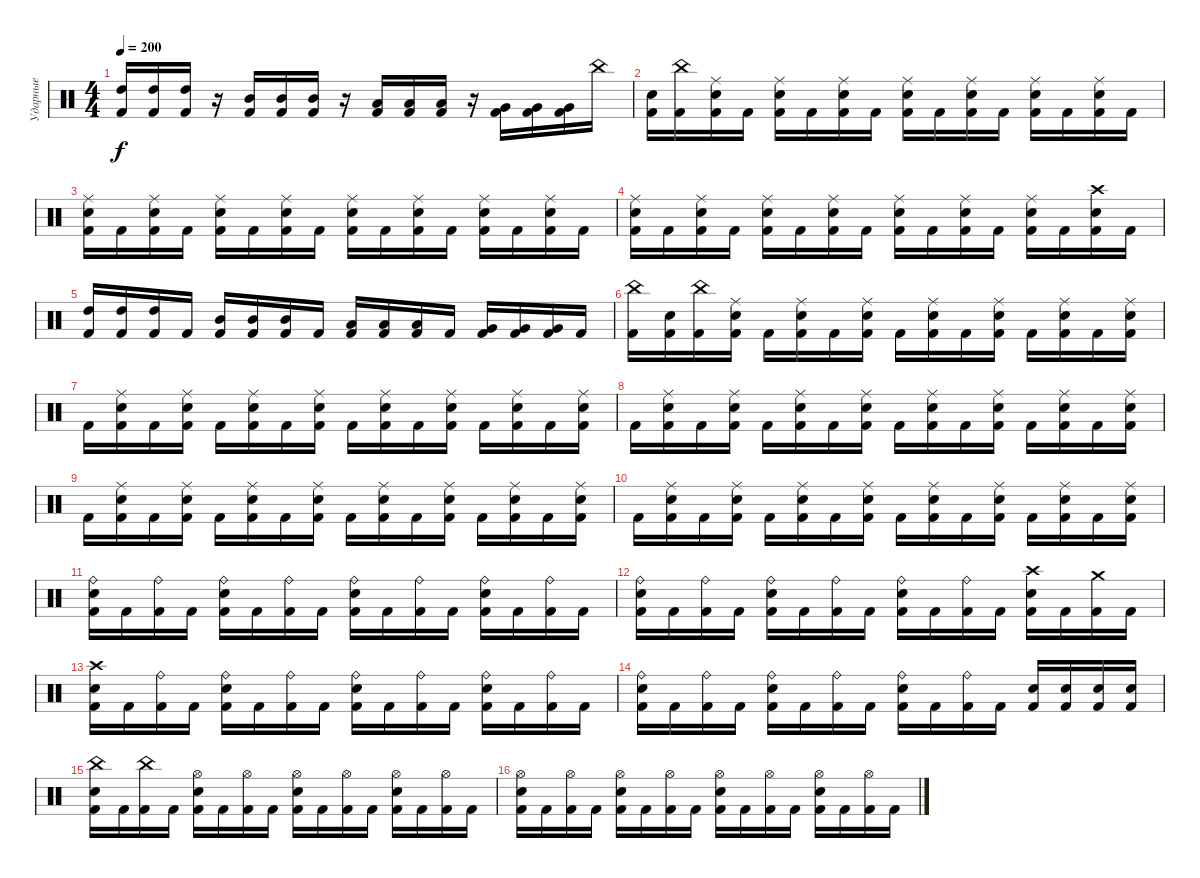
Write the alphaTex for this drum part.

\track ("Ударные" "Ударные") {instrument percussion}
\staff {score}
\articulation defaults
\ts (4 4)
\tempo 200
\clef neutral
\ks c
("High Tom (hit)" "Kick (hit) 2").16{dy f} ("High Tom (hit)" "Kick (hit) 2").16 ("High Tom (hit)" "Kick (hit) 2").16 r.16 ("Mid Tom (hit)" "Kick (hit) 2").16 ("Mid Tom (hit)" "Kick (hit) 2").16 ("Mid Tom (hit)" "Kick (hit) 2").16 r.16 ("Low Tom (hit)" "Kick (hit) 2").16 ("Low Tom (hit)" "Kick (hit) 2").16 ("Low Tom (hit)" "Kick (hit) 2").16 r.16 ("Very Low Tom (hit)" "Kick (hit) 2").16 ("Very Low Tom (hit)" "Kick (hit) 2").16 ("Very Low Tom (hit)" "Kick (hit) 2").16 "China (hit)".16 |
("Snare (hit) 2" "Kick (hit) 2").16 ("China (hit)" "Kick (hit) 2").16 ("Ride (middle)" "Snare (hit) 2" "Kick (hit) 2").16 "Kick (hit) 2".16 ("Ride (middle)" "Snare (hit) 2" "Kick (hit) 2").16 "Kick (hit) 2".16 ("Ride (middle)" "Snare (hit) 2" "Kick (hit) 2").16 "Kick (hit) 2".16 ("Ride (middle)" "Snare (hit) 2" "Kick (hit) 2").16 "Kick (hit) 2".16 ("Ride (middle)" "Snare (hit) 2" "Kick (hit) 2").16 "Kick (hit) 2".16 ("Ride (middle)" "Snare (hit) 2" "Kick (hit) 2").16 "Kick (hit) 2".16 ("Ride (middle)" "Snare (hit) 2" "Kick (hit) 2").16 "Kick (hit) 2".16 |
("Ride (middle)" "Snare (hit) 2" "Kick (hit) 2").16 "Kick (hit) 2".16 ("Ride (middle)" "Snare (hit) 2" "Kick (hit) 2").16 "Kick (hit) 2".16 ("Ride (middle)" "Snare (hit) 2" "Kick (hit) 2").16 "Kick (hit) 2".16 ("Ride (middle)" "Snare (hit) 2" "Kick (hit) 2").16 "Kick (hit) 2".16 ("Ride (middle)" "Snare (hit) 2" "Kick (hit) 2").16 "Kick (hit) 2".16 ("Ride (middle)" "Snare (hit) 2" "Kick (hit) 2").16 "Kick (hit) 2".16 ("Ride (middle)" "Snare (hit) 2" "Kick (hit) 2").16 "Kick (hit) 2".16 ("Ride (middle)" "Snare (hit) 2" "Kick (hit) 2").16 "Kick (hit) 2".16 |
("Ride (middle)" "Snare (hit) 2" "Kick (hit) 2").16 "Kick (hit) 2".16 ("Ride (middle)" "Snare (hit) 2" "Kick (hit) 2").16 "Kick (hit) 2".16 ("Ride (middle)" "Snare (hit) 2" "Kick (hit) 2").16 "Kick (hit) 2".16 ("Ride (middle)" "Snare (hit) 2" "Kick (hit) 2").16 "Kick (hit) 2".16 ("Ride (middle)" "Snare (hit) 2" "Kick (hit) 2").16 "Kick (hit) 2".16 ("Ride (middle)" "Snare (hit) 2" "Kick (hit) 2").16 "Kick (hit) 2".16 ("Ride (middle)" "Snare (hit) 2" "Kick (hit) 2").16 "Kick (hit) 2".16 ("Crash high (hit)" "Snare (hit) 2" "Kick (hit) 2").16 "Kick (hit) 2".16 |
("High Tom (hit)" "Kick (hit) 2").16 ("High Tom (hit)" "Kick (hit) 2").16 ("High Tom (hit)" "Kick (hit) 2").16 "Kick (hit) 2".16 ("Mid Tom (hit)" "Kick (hit) 2").16 ("Mid Tom (hit)" "Kick (hit) 2").16 ("Mid Tom (hit)" "Kick (hit) 2").16 "Kick (hit) 2".16 ("Low Tom (hit)" "Kick (hit) 2").16 ("Low Tom (hit)" "Kick (hit) 2").16 ("Low Tom (hit)" "Kick (hit) 2").16 "Kick (hit) 2".16 ("Very Low Tom (hit)" "Kick (hit) 2").16 ("Very Low Tom (hit)" "Kick (hit) 2").16 ("Very Low Tom (hit)" "Kick (hit) 2").16 "Kick (hit) 2".16 |
("China (hit)" "Kick (hit) 2").16 ("Snare (hit) 2" "Kick (hit) 2").16 ("China (hit)" "Kick (hit) 2").16 ("Ride (middle)" "Snare (hit) 2" "Kick (hit) 2").16 "Kick (hit) 2".16 ("Ride (middle)" "Snare (hit) 2" "Kick (hit) 2").16 "Kick (hit) 2".16 ("Ride (middle)" "Snare (hit) 2" "Kick (hit) 2").16 "Kick (hit) 2".16 ("Ride (middle)" "Snare (hit) 2" "Kick (hit) 2").16 "Kick (hit) 2".16 ("Ride (middle)" "Snare (hit) 2" "Kick (hit) 2").16 "Kick (hit) 2".16 ("Ride (middle)" "Snare (hit) 2" "Kick (hit) 2").16 "Kick (hit) 2".16 ("Ride (middle)" "Snare (hit) 2" "Kick (hit) 2").16 |
"Kick (hit) 2".16 ("Ride (middle)" "Snare (hit) 2" "Kick (hit) 2").16 "Kick (hit) 2".16 ("Ride (middle)" "Snare (hit) 2" "Kick (hit) 2").16 "Kick (hit) 2".16 ("Ride (middle)" "Snare (hit) 2" "Kick (hit) 2").16 "Kick (hit) 2".16 ("Ride (middle)" "Snare (hit) 2" "Kick (hit) 2").16 "Kick (hit) 2".16 ("Ride (middle)" "Snare (hit) 2" "Kick (hit) 2").16 "Kick (hit) 2".16 ("Ride (middle)" "Snare (hit) 2" "Kick (hit) 2").16 "Kick (hit) 2".16 ("Ride (middle)" "Snare (hit) 2" "Kick (hit) 2").16 "Kick (hit) 2".16 ("Ride (middle)" "Snare (hit) 2" "Kick (hit) 2").16 |
"Kick (hit) 2".16 ("Ride (middle)" "Snare (hit) 2" "Kick (hit) 2").16 "Kick (hit) 2".16 ("Ride (middle)" "Snare (hit) 2" "Kick (hit) 2").16 "Kick (hit) 2".16 ("Ride (middle)" "Snare (hit) 2" "Kick (hit) 2").16 "Kick (hit) 2".16 ("Ride (middle)" "Snare (hit) 2" "Kick (hit) 2").16 "Kick (hit) 2".16 ("Ride (middle)" "Snare (hit) 2" "Kick (hit) 2").16 "Kick (hit) 2".16 ("Ride (middle)" "Snare (hit) 2" "Kick (hit) 2").16 "Kick (hit) 2".16 ("Ride (middle)" "Snare (hit) 2" "Kick (hit) 2").16 "Kick (hit) 2".16 ("Ride (middle)" "Snare (hit) 2" "Kick (hit) 2").16 |
"Kick (hit) 2".16 ("Ride (middle)" "Snare (hit) 2" "Kick (hit) 2").16 "Kick (hit) 2".16 ("Ride (middle)" "Snare (hit) 2" "Kick (hit) 2").16 "Kick (hit) 2".16 ("Ride (middle)" "Snare (hit) 2" "Kick (hit) 2").16 "Kick (hit) 2".16 ("Ride (middle)" "Snare (hit) 2" "Kick (hit) 2").16 "Kick (hit) 2".16 ("Ride (middle)" "Snare (hit) 2" "Kick (hit) 2").16 "Kick (hit) 2".16 ("Ride (middle)" "Snare (hit) 2" "Kick (hit) 2").16 "Kick (hit) 2".16 ("Ride (middle)" "Snare (hit) 2" "Kick (hit) 2").16 "Kick (hit) 2".16 ("Ride (middle)" "Snare (hit) 2" "Kick (hit) 2").16 |
"Kick (hit) 2".16 ("Ride (middle)" "Snare (hit) 2" "Kick (hit) 2").16 "Kick (hit) 2".16 ("Ride (middle)" "Snare (hit) 2" "Kick (hit) 2").16 "Kick (hit) 2".16 ("Ride (middle)" "Snare (hit) 2" "Kick (hit) 2").16 "Kick (hit) 2".16 ("Ride (middle)" "Snare (hit) 2" "Kick (hit) 2").16 "Kick (hit) 2".16 ("Ride (middle)" "Snare (hit) 2" "Kick (hit) 2").16 "Kick (hit) 2".16 ("Ride (middle)" "Snare (hit) 2" "Kick (hit) 2").16 "Kick (hit) 2".16 ("Ride (middle)" "Snare (hit) 2" "Kick (hit) 2").16 "Kick (hit) 2".16 ("Ride (middle)" "Snare (hit) 2" "Kick (hit) 2").16 |
("Ride (bell)" "Snare (hit) 2" "Kick (hit) 2").16 "Kick (hit) 2".16 ("Ride (bell)" "Kick (hit) 2").16 "Kick (hit) 2".16 ("Ride (bell)" "Snare (hit) 2" "Kick (hit) 2").16 "Kick (hit) 2".16 ("Ride (bell)" "Kick (hit) 2").16 "Kick (hit) 2".16 ("Ride (bell)" "Snare (hit) 2" "Kick (hit) 2").16 "Kick (hit) 2".16 ("Ride (bell)" "Kick (hit) 2").16 "Kick (hit) 2".16 ("Ride (bell)" "Snare (hit) 2" "Kick (hit) 2").16 "Kick (hit) 2".16 ("Ride (bell)" "Kick (hit) 2").16 "Kick (hit) 2".16 |
("Ride (bell)" "Snare (hit) 2" "Kick (hit) 2").16 "Kick (hit) 2".16 ("Ride (bell)" "Kick (hit) 2").16 "Kick (hit) 2".16 ("Ride (bell)" "Snare (hit) 2" "Kick (hit) 2").16 "Kick (hit) 2".16 ("Ride (bell)" "Kick (hit) 2").16 "Kick (hit) 2".16 ("Ride (bell)" "Snare (hit) 2" "Kick (hit) 2").16 "Kick (hit) 2".16 ("Ride (bell)" "Kick (hit) 2").16 "Kick (hit) 2".16 ("Crash high (hit)" "Snare (hit) 2" "Kick (hit) 2").16 "Kick (hit) 2".16 ("Crash medium (hit)" "Kick (hit) 2").16 "Kick (hit) 2".16 |
("Crash high (hit)" "Snare (hit) 2" "Kick (hit) 2").16 "Kick (hit) 2".16 ("Ride (bell)" "Kick (hit) 2").16 "Kick (hit) 2".16 ("Ride (bell)" "Snare (hit) 2" "Kick (hit) 2").16 "Kick (hit) 2".16 ("Ride (bell)" "Kick (hit) 2").16 "Kick (hit) 2".16 ("Ride (bell)" "Snare (hit) 2" "Kick (hit) 2").16 "Kick (hit) 2".16 ("Ride (bell)" "Kick (hit) 2").16 "Kick (hit) 2".16 ("Ride (bell)" "Snare (hit) 2" "Kick (hit) 2").16 "Kick (hit) 2".16 ("Ride (bell)" "Kick (hit) 2").16 "Kick (hit) 2".16 |
("Ride (bell)" "Snare (hit) 2" "Kick (hit) 2").16 "Kick (hit) 2".16 ("Ride (bell)" "Kick (hit) 2").16 "Kick (hit) 2".16 ("Ride (bell)" "Snare (hit) 2" "Kick (hit) 2").16 "Kick (hit) 2".16 ("Ride (bell)" "Kick (hit) 2").16 "Kick (hit) 2".16 ("Ride (bell)" "Snare (hit) 2" "Kick (hit) 2").16 "Kick (hit) 2".16 ("Ride (bell)" "Kick (hit) 2").16 "Kick (hit) 2".16 ("Snare (hit) 2" "Kick (hit) 2").16 ("Snare (hit) 2" "Kick (hit) 2").16 ("Snare (hit) 2" "Kick (hit) 2").16 ("Snare (hit) 2" "Kick (hit) 2").16 |
("China (hit)" "Snare (hit) 2" "Kick (hit) 2").16 "Kick (hit) 2".16 ("China (hit)" "Kick (hit) 2").16 "Kick (hit) 2".16 ("Hi-Hat (open)" "Snare (hit) 2" "Kick (hit) 2").16 "Kick (hit) 2".16 ("Hi-Hat (open)" "Kick (hit) 2").16 "Kick (hit) 2".16 ("Hi-Hat (open)" "Snare (hit) 2" "Kick (hit) 2").16 "Kick (hit) 2".16 ("Hi-Hat (open)" "Kick (hit) 2").16 "Kick (hit) 2".16 ("Hi-Hat (open)" "Snare (hit) 2" "Kick (hit) 2").16 "Kick (hit) 2".16 ("Hi-Hat (open)" "Kick (hit) 2").16 "Kick (hit) 2".16 |
("Hi-Hat (open)" "Snare (hit) 2" "Kick (hit) 2").16 "Kick (hit) 2".16 ("Hi-Hat (open)" "Kick (hit) 2").16 "Kick (hit) 2".16 ("Hi-Hat (open)" "Snare (hit) 2" "Kick (hit) 2").16 "Kick (hit) 2".16 ("Hi-Hat (open)" "Kick (hit) 2").16 "Kick (hit) 2".16 ("Hi-Hat (open)" "Snare (hit) 2" "Kick (hit) 2").16 "Kick (hit) 2".16 ("Hi-Hat (open)" "Kick (hit) 2").16 "Kick (hit) 2".16 ("Hi-Hat (open)" "Snare (hit) 2" "Kick (hit) 2").16 "Kick (hit) 2".16 ("Hi-Hat (open)" "Kick (hit) 2").16 "Kick (hit) 2".16
